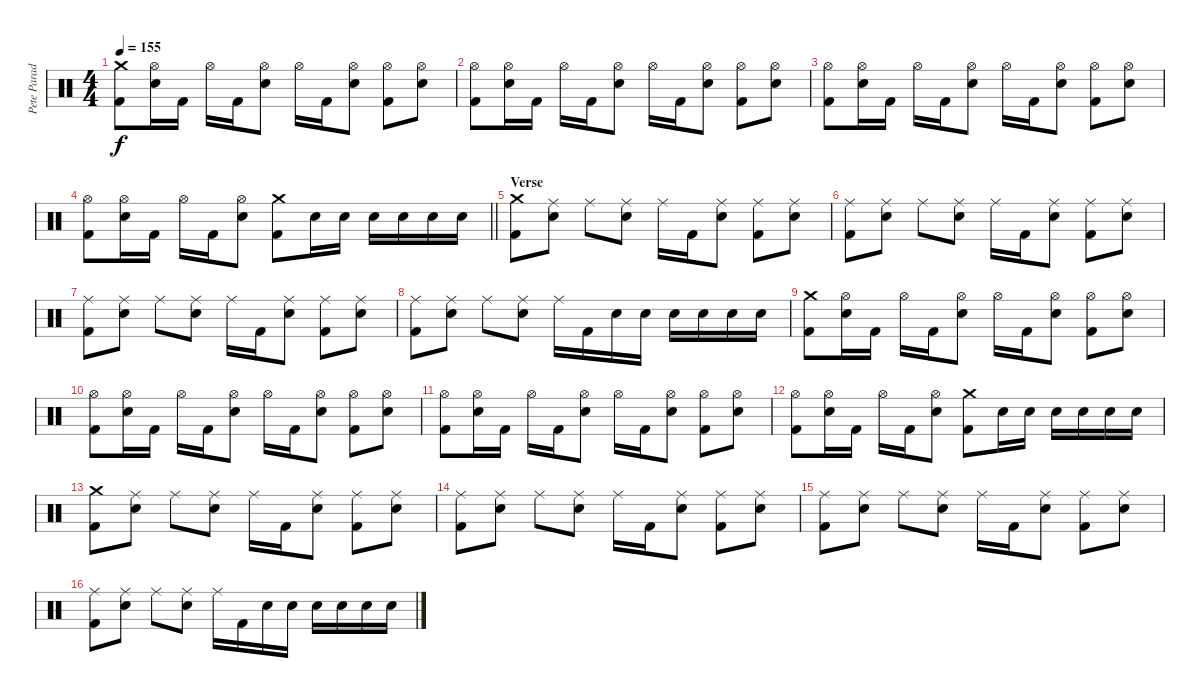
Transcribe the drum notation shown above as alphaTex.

\track ("Pete Parada - Drums" "Pete Parad") {instrument percussion}
\staff {score}
\articulation defaults
\ts (4 4)
\tempo 155
\clef neutral
\ks c
("Crash medium (hit)" "Kick (hit) 2").8{dy f} ("Hi-Hat (open)" "Electric Snare (hit)").16 "Kick (hit) 2".16 "Hi-Hat (open)".16 "Kick (hit) 2".16 ("Hi-Hat (open)" "Electric Snare (hit)").8 "Hi-Hat (open)".16 "Kick (hit) 2".16 ("Hi-Hat (open)" "Electric Snare (hit)").8 ("Hi-Hat (open)" "Kick (hit) 2").8 ("Hi-Hat (open)" "Electric Snare (hit)").8 |
("Hi-Hat (open)" "Kick (hit) 2").8 ("Hi-Hat (open)" "Electric Snare (hit)").16 "Kick (hit) 2".16 "Hi-Hat (open)".16 "Kick (hit) 2".16 ("Hi-Hat (open)" "Electric Snare (hit)").8 "Hi-Hat (open)".16 "Kick (hit) 2".16 ("Hi-Hat (open)" "Electric Snare (hit)").8 ("Hi-Hat (open)" "Kick (hit) 2").8 ("Hi-Hat (open)" "Electric Snare (hit)").8 |
("Hi-Hat (open)" "Kick (hit) 2").8 ("Hi-Hat (open)" "Electric Snare (hit)").16 "Kick (hit) 2".16 "Hi-Hat (open)".16 "Kick (hit) 2".16 ("Hi-Hat (open)" "Electric Snare (hit)").8 "Hi-Hat (open)".16 "Kick (hit) 2".16 ("Hi-Hat (open)" "Electric Snare (hit)").8 ("Hi-Hat (open)" "Kick (hit) 2").8 ("Hi-Hat (open)" "Electric Snare (hit)").8 |
\barLineRight lightlight
("Hi-Hat (open)" "Kick (hit) 2").8 ("Hi-Hat (open)" "Electric Snare (hit)").16 "Kick (hit) 2".16 "Hi-Hat (open)".16 "Kick (hit) 2".16 ("Hi-Hat (open)" "Electric Snare (hit)").8 ("Crash medium (hit)" "Kick (hit) 2").8 "Electric Snare (hit)".16 "Electric Snare (hit)".16 "Electric Snare (hit)".16 "Electric Snare (hit)".16 "Electric Snare (hit)".16 "Electric Snare (hit)".16 |
\section ("" "Verse")
("Crash medium (hit)" "Kick (hit) 2").8 ("Ride (middle)" "Electric Snare (hit)").8 "Ride (middle)".8 ("Ride (middle)" "Electric Snare (hit)").8 "Ride (middle)".16 "Kick (hit) 2".16 ("Ride (middle)" "Electric Snare (hit)").8 ("Ride (middle)" "Kick (hit) 2").8 ("Ride (middle)" "Electric Snare (hit)").8 |
("Ride (middle)" "Kick (hit) 2").8 ("Ride (middle)" "Electric Snare (hit)").8 "Ride (middle)".8 ("Ride (middle)" "Electric Snare (hit)").8 "Ride (middle)".16 "Kick (hit) 2".16 ("Ride (middle)" "Electric Snare (hit)").8 ("Ride (middle)" "Kick (hit) 2").8 ("Ride (middle)" "Electric Snare (hit)").8 |
("Ride (middle)" "Kick (hit) 2").8 ("Ride (middle)" "Electric Snare (hit)").8 "Ride (middle)".8 ("Ride (middle)" "Electric Snare (hit)").8 "Ride (middle)".16 "Kick (hit) 2".16 ("Ride (middle)" "Electric Snare (hit)").8 ("Ride (middle)" "Kick (hit) 2").8 ("Ride (middle)" "Electric Snare (hit)").8 |
("Ride (middle)" "Kick (hit) 2").8 ("Ride (middle)" "Electric Snare (hit)").8 "Ride (middle)".8 ("Ride (middle)" "Electric Snare (hit)").8 "Ride (middle)".16 "Kick (hit) 2".16 "Electric Snare (hit)".16 "Electric Snare (hit)".16 "Electric Snare (hit)".16 "Electric Snare (hit)".16 "Electric Snare (hit)".16 "Electric Snare (hit)".16 |
("Crash medium (hit)" "Kick (hit) 2").8 ("Hi-Hat (open)" "Electric Snare (hit)").16 "Kick (hit) 2".16 "Hi-Hat (open)".16 "Kick (hit) 2".16 ("Hi-Hat (open)" "Electric Snare (hit)").8 "Hi-Hat (open)".16 "Kick (hit) 2".16 ("Hi-Hat (open)" "Electric Snare (hit)").8 ("Hi-Hat (open)" "Kick (hit) 2").8 ("Hi-Hat (open)" "Electric Snare (hit)").8 |
("Hi-Hat (open)" "Kick (hit) 2").8 ("Hi-Hat (open)" "Electric Snare (hit)").16 "Kick (hit) 2".16 "Hi-Hat (open)".16 "Kick (hit) 2".16 ("Hi-Hat (open)" "Electric Snare (hit)").8 "Hi-Hat (open)".16 "Kick (hit) 2".16 ("Hi-Hat (open)" "Electric Snare (hit)").8 ("Hi-Hat (open)" "Kick (hit) 2").8 ("Hi-Hat (open)" "Electric Snare (hit)").8 |
("Hi-Hat (open)" "Kick (hit) 2").8 ("Hi-Hat (open)" "Electric Snare (hit)").16 "Kick (hit) 2".16 "Hi-Hat (open)".16 "Kick (hit) 2".16 ("Hi-Hat (open)" "Electric Snare (hit)").8 "Hi-Hat (open)".16 "Kick (hit) 2".16 ("Hi-Hat (open)" "Electric Snare (hit)").8 ("Hi-Hat (open)" "Kick (hit) 2").8 ("Hi-Hat (open)" "Electric Snare (hit)").8 |
("Hi-Hat (open)" "Kick (hit) 2").8 ("Hi-Hat (open)" "Electric Snare (hit)").16 "Kick (hit) 2".16 "Hi-Hat (open)".16 "Kick (hit) 2".16 ("Hi-Hat (open)" "Electric Snare (hit)").8 ("Crash medium (hit)" "Kick (hit) 2").8 "Electric Snare (hit)".16 "Electric Snare (hit)".16 "Electric Snare (hit)".16 "Electric Snare (hit)".16 "Electric Snare (hit)".16 "Electric Snare (hit)".16 |
("Crash medium (hit)" "Kick (hit) 2").8 ("Ride (middle)" "Electric Snare (hit)").8 "Ride (middle)".8 ("Ride (middle)" "Electric Snare (hit)").8 "Ride (middle)".16 "Kick (hit) 2".16 ("Ride (middle)" "Electric Snare (hit)").8 ("Ride (middle)" "Kick (hit) 2").8 ("Ride (middle)" "Electric Snare (hit)").8 |
("Ride (middle)" "Kick (hit) 2").8 ("Ride (middle)" "Electric Snare (hit)").8 "Ride (middle)".8 ("Ride (middle)" "Electric Snare (hit)").8 "Ride (middle)".16 "Kick (hit) 2".16 ("Ride (middle)" "Electric Snare (hit)").8 ("Ride (middle)" "Kick (hit) 2").8 ("Ride (middle)" "Electric Snare (hit)").8 |
("Ride (middle)" "Kick (hit) 2").8 ("Ride (middle)" "Electric Snare (hit)").8 "Ride (middle)".8 ("Ride (middle)" "Electric Snare (hit)").8 "Ride (middle)".16 "Kick (hit) 2".16 ("Ride (middle)" "Electric Snare (hit)").8 ("Ride (middle)" "Kick (hit) 2").8 ("Ride (middle)" "Electric Snare (hit)").8 |
("Ride (middle)" "Kick (hit) 2").8 ("Ride (middle)" "Electric Snare (hit)").8 "Ride (middle)".8 ("Ride (middle)" "Electric Snare (hit)").8 "Ride (middle)".16 "Kick (hit) 2".16 "Electric Snare (hit)".16 "Electric Snare (hit)".16 "Electric Snare (hit)".16 "Electric Snare (hit)".16 "Electric Snare (hit)".16 "Electric Snare (hit)".16
